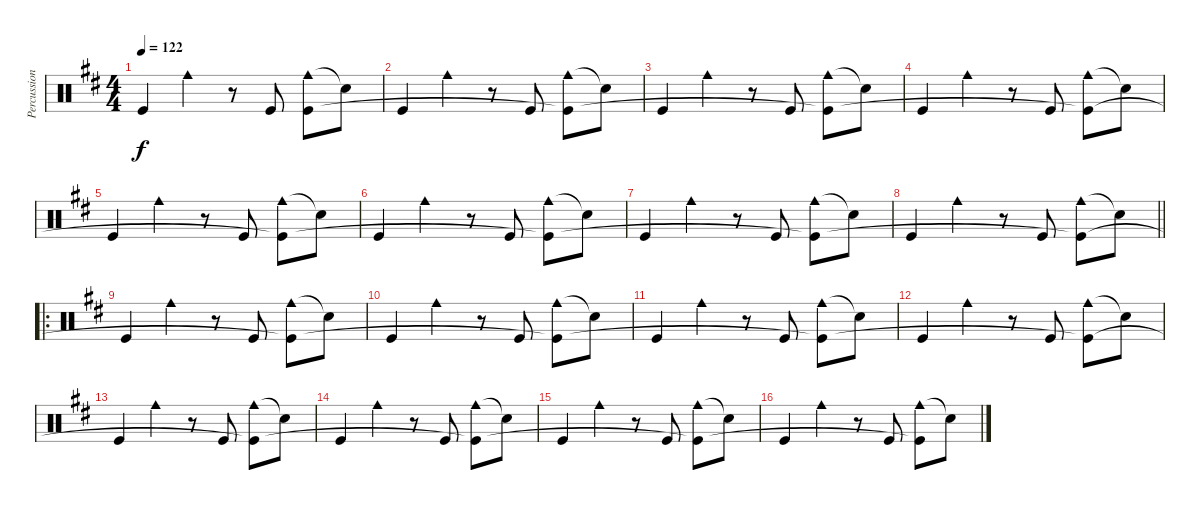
\track ("Percussions" "Percussion") {instrument percussion}
\staff {score}
\articulation defaults
\ts (4 4)
\tempo 122
\clef neutral
\ks d "Kick (hit)".4{dy f} "Cowbell medium (hit)".4
r.8 "Kick (hit)".8 ("Cowbell medium (hit)" "Kick (hit)"{t}).8 "Snare (hit)"{t}.8 |
"Kick (hit)".4 "Cowbell medium (hit)".4 r.8 "Kick (hit)".8 ("Cowbell medium (hit)" "Kick (hit)"{t}).8 "Snare (hit)"{t}.8 |
"Kick (hit)".4 "Cowbell medium (hit)".4 r.8 "Kick (hit)".8 ("Cowbell medium (hit)" "Kick (hit)"{t}).8 "Snare (hit)"{t}.8 |
"Kick (hit)".4 "Cowbell medium (hit)".4 r.8 "Kick (hit)".8 ("Cowbell medium (hit)" "Kick (hit)"{t}).8 "Snare (hit)"{t}.8 |
"Kick (hit)".4 "Cowbell medium (hit)".4 r.8 "Kick (hit)".8 ("Cowbell medium (hit)" "Kick (hit)"{t}).8 "Snare (hit)"{t}.8 |
"Kick (hit)".4 "Cowbell medium (hit)".4 r.8 "Kick (hit)".8 ("Cowbell medium (hit)" "Kick (hit)"{t}).8 "Snare (hit)"{t}.8 |
"Kick (hit)".4 "Cowbell medium (hit)".4 r.8 "Kick (hit)".8 ("Cowbell medium (hit)" "Kick (hit)"{t}).8 "Snare (hit)"{t}.8 |
\barLineRight lightlight "Kick (hit)".4 "Cowbell medium (hit)".4
r.8 "Kick (hit)".8 ("Cowbell medium (hit)" "Kick (hit)"{t}).8 "Snare (hit)"{t}.8 |
\ro "Kick (hit)".4 "Cowbell medium (hit)".4
r.8 "Kick (hit)".8 ("Cowbell medium (hit)" "Kick (hit)"{t}).8 "Snare (hit)"{t}.8 |
"Kick (hit)".4 "Cowbell medium (hit)".4 r.8 "Kick (hit)".8 ("Cowbell medium (hit)" "Kick (hit)"{t}).8 "Snare (hit)"{t}.8 |
"Kick (hit)".4 "Cowbell medium (hit)".4 r.8 "Kick (hit)".8 ("Cowbell medium (hit)" "Kick (hit)"{t}).8 "Snare (hit)"{t}.8 |
"Kick (hit)".4 "Cowbell medium (hit)".4 r.8 "Kick (hit)".8 ("Cowbell medium (hit)" "Kick (hit)"{t}).8 "Snare (hit)"{t}.8 |
"Kick (hit)".4 "Cowbell medium (hit)".4 r.8 "Kick (hit)".8 ("Cowbell medium (hit)" "Kick (hit)"{t}).8 "Snare (hit)"{t}.8 |
"Kick (hit)".4 "Cowbell medium (hit)".4 r.8 "Kick (hit)".8 ("Cowbell medium (hit)" "Kick (hit)"{t}).8 "Snare (hit)"{t}.8 |
"Kick (hit)".4 "Cowbell medium (hit)".4 r.8 "Kick (hit)".8 ("Cowbell medium (hit)" "Kick (hit)"{t}).8 "Snare (hit)"{t}.8 |
"Kick (hit)".4 "Cowbell medium (hit)".4 r.8 "Kick (hit)".8 ("Cowbell medium (hit)" "Kick (hit)"{t}).8 "Snare (hit)"{t}.8
